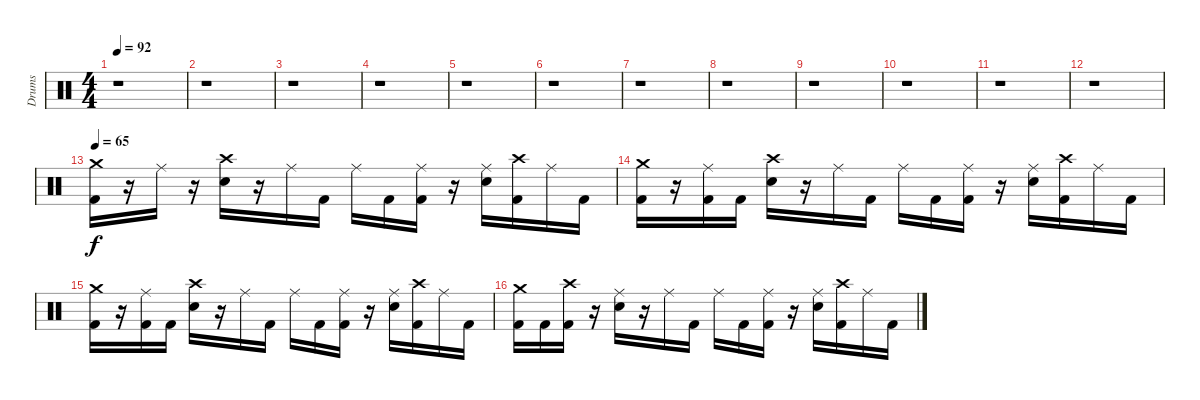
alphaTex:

\track ("Drums" "Drums") {instrument percussion}
\staff {score}
\articulation defaults
\ts (4 4)
\section ("" "")
\tempo 92
\clef neutral
\ks c
r.1{dy f} |
r.1 |
r.1 |
r.1 |
\section ("" "")
r.1 |
r.1 |
r.1 |
r.1 |
\section ("" "")
r.1 |
r.1 |
r.1 |
r.1 |
\section ("" "")
\tempo 65
("Crash medium (hit)" "Kick (hit) 2").16 r.16 "Ride (middle)".16 r.16 ("Crash high (hit)" "Electric Snare (hit)").16 r.16 "Ride (middle)".16 "Kick (hit) 2".16 "Ride (middle)".16 "Kick (hit) 2".16 ("Ride (middle)" "Kick (hit) 2").16 r.16 ("Ride (middle)" "Electric Snare (hit)").16 ("Crash high (hit)" "Kick (hit) 2").16 "Ride (middle)".16 "Kick (hit) 2".16 |
("Crash medium (hit)" "Kick (hit) 2").16 r.16 ("Ride (middle)" "Kick (hit) 2").16 "Kick (hit) 2".16 ("Crash high (hit)" "Electric Snare (hit)").16 r.16 "Ride (middle)".16 "Kick (hit) 2".16 "Ride (middle)".16 "Kick (hit) 2".16 ("Ride (middle)" "Kick (hit) 2").16 r.16 ("Ride (middle)" "Electric Snare (hit)").16 ("Crash high (hit)" "Kick (hit) 2").16 "Ride (middle)".16 "Kick (hit) 2".16 |
("Crash medium (hit)" "Kick (hit) 2").16 r.16 ("Ride (middle)" "Kick (hit) 2").16 "Kick (hit) 2".16 ("Crash high (hit)" "Electric Snare (hit)").16 r.16 "Ride (middle)".16 "Kick (hit) 2".16 "Ride (middle)".16 "Kick (hit) 2".16 ("Ride (middle)" "Kick (hit) 2").16 r.16 ("Ride (middle)" "Electric Snare (hit)").16 ("Crash high (hit)" "Kick (hit) 2").16 "Ride (middle)".16 "Kick (hit) 2".16 |
("Crash medium (hit)" "Kick (hit) 2").16 "Kick (hit) 2".16 ("Crash high (hit)" "Kick (hit) 2").16 r.16 ("Ride (middle)" "Electric Snare (hit)").16 r.16 "Ride (middle)".16 "Kick (hit) 2".16 "Ride (middle)".16 "Kick (hit) 2".16 ("Ride (middle)" "Kick (hit) 2").16 r.16 ("Ride (middle)" "Electric Snare (hit)").16 ("Crash high (hit)" "Kick (hit) 2").16 "Ride (middle)".16 "Kick (hit) 2".16
